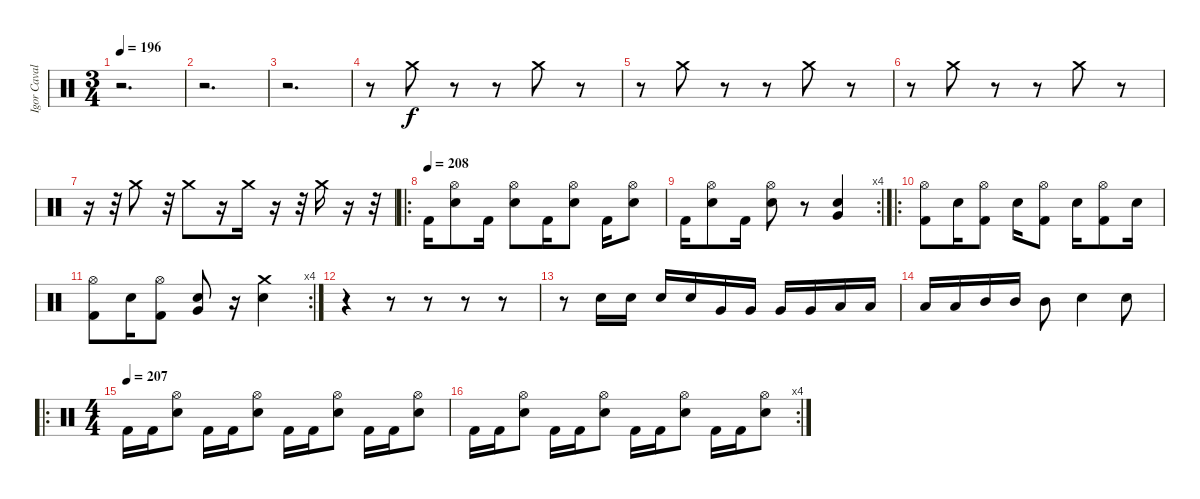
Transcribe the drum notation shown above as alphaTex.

\track ("Igor Cavalera" "Igor Caval") {solo instrument percussion}
\staff {score}
\articulation defaults
\ts (3 4)
\tempo 196
\clef neutral
\ks c
r.2{d dy f} |
r.2{d} |
r.2{d} |
r.8 "Crash medium (hit)".8 r.8 r.8 "Crash medium (hit)".8 r.8 |
r.8 "Crash medium (hit)".8 r.8 r.8 "Crash medium (hit)".8 r.8 |
r.8 "Crash medium (hit)".8 r.8 r.8 "Crash medium (hit)".8 r.8 |
r.16 r.32 "Crash medium (hit)".8 r.32 "Crash medium (hit)".8 r.16 "Crash medium (hit)".16 r.16 r.32 "Crash medium (hit)".16 r.16 r.32 |
\ro
\tempo (208)
"Kick (hit) 2".16 ("Electric Snare (hit)" "Hi-Hat (open)").8 "Kick (hit) 2".16 ("Electric Snare (hit)" "Hi-Hat (open)").8 "Kick (hit) 2".16 ("Electric Snare (hit)" "Hi-Hat (open)").8 "Kick (hit) 2".16 ("Electric Snare (hit)" "Hi-Hat (open)").8 |
\rc 4 "Kick (hit) 2".16
("Electric Snare (hit)" "Hi-Hat (open)").8 "Kick (hit) 2".16 ("Electric Snare (hit)" "Hi-Hat (open)").8 r.8 ("Electric Snare (hit)" "Very Low Tom (hit)").4 |
\ro
("Kick (hit) 2" "Hi-Hat (open)").8 "Electric Snare (hit)".16 ("Kick (hit) 2" "Hi-Hat (open)").8 "Electric Snare (hit)".16 ("Kick (hit) 2" "Hi-Hat (open)").8 "Electric Snare (hit)".16 ("Kick (hit) 2" "Hi-Hat (open)").8 "Electric Snare (hit)".16 |
\rc 4
("Kick (hit) 2" "Hi-Hat (open)").8 "Electric Snare (hit)".16 ("Kick (hit) 2" "Hi-Hat (open)").8 ("Electric Snare (hit)" "Very Low Tom (hit)").8 r.16 ("Electric Snare (hit)" "Crash medium (hit)").4 |
r.4 r.8 r.8 r.8 r.8 |
r.8 "Electric Snare (hit)".16 "Electric Snare (hit)".16 "Electric Snare (hit)".16 "Electric Snare (hit)".16 "Very Low Tom (hit)".16 "Very Low Tom (hit)".16 "Very Low Tom (hit)".16 "Very Low Tom (hit)".16 "Low Tom (hit)".16 "Low Tom (hit)".16 |
"Low Tom (hit)".16 "Low Tom (hit)".16 "Mid Tom (hit)".16 "Mid Tom (hit)".16 "Mid Tom (hit)".8 "Electric Snare (hit)".4 "Electric Snare (hit)".8 |
\ro
\ts (4 4)
\tempo (207)
"Kick (hit) 2".16 "Kick (hit) 2".16 ("Electric Snare (hit)" "Hi-Hat (open)").8 "Kick (hit) 2".16 "Kick (hit) 2".16 ("Electric Snare (hit)" "Hi-Hat (open)").8 "Kick (hit) 2".16 "Kick (hit) 2".16 ("Electric Snare (hit)" "Hi-Hat (open)").8 "Kick (hit) 2".16 "Kick (hit) 2".16 ("Electric Snare (hit)" "Hi-Hat (open)").8 |
\rc 4 "Kick (hit) 2".16 "Kick (hit) 2".16
("Electric Snare (hit)" "Hi-Hat (open)").8 "Kick (hit) 2".16 "Kick (hit) 2".16 ("Electric Snare (hit)" "Hi-Hat (open)").8 "Kick (hit) 2".16 "Kick (hit) 2".16 ("Electric Snare (hit)" "Hi-Hat (open)").8 "Kick (hit) 2".16 "Kick (hit) 2".16 ("Electric Snare (hit)" "Hi-Hat (open)").8
